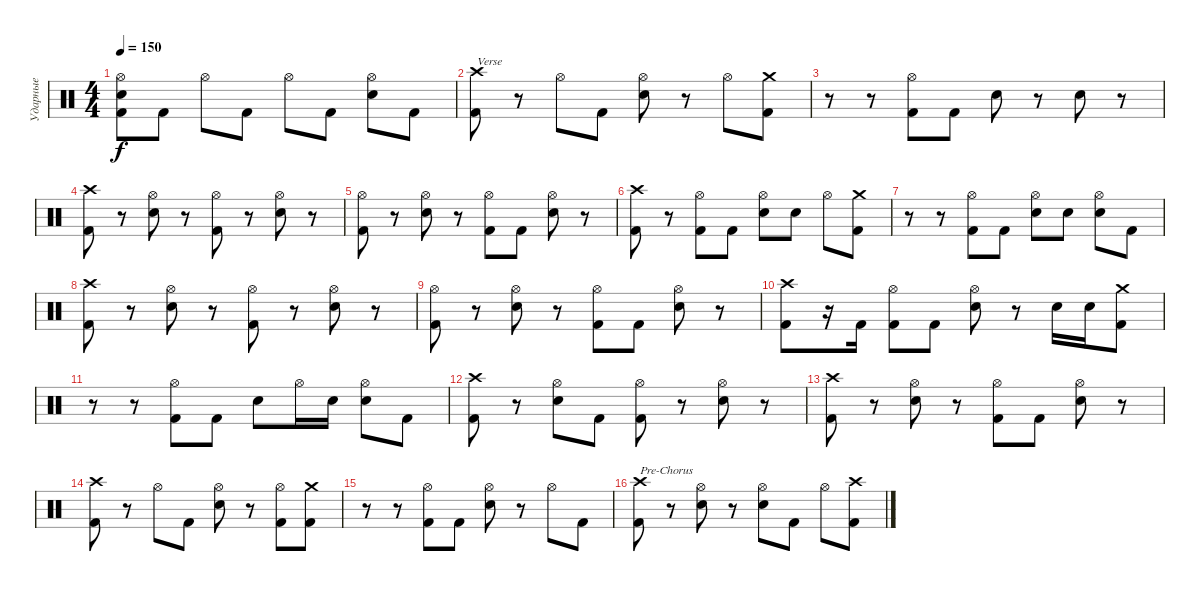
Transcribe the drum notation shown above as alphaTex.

\track ("Ударные" "Ударные") {instrument percussion}
\staff
\articulation defaults
\ts (4 4)
\tempo 150
\clef neutral
\ks c
("Kick (hit) 2" "Snare (hit) 2" "Hi-Hat (open)").8{dy f} "Kick (hit) 2".8 "Hi-Hat (open)".8 "Kick (hit) 2".8 "Hi-Hat (open)".8 "Kick (hit) 2".8 ("Snare (hit) 2" "Hi-Hat (open)").8 "Kick (hit) 2".8 |
("Kick (hit) 2" "Crash high (hit)").8{txt "Verse"} r.8 "Hi-Hat (open)".8 "Kick (hit) 2".8 ("Snare (hit) 2" "Hi-Hat (open)").8 r.8 "Hi-Hat (open)".8 ("Kick (hit) 2" "Crash medium (hit)").8 |
r.8 r.8 ("Kick (hit) 2" "Hi-Hat (open)").8 "Kick (hit) 2".8 "Snare (hit) 2".8 r.8 "Snare (hit) 2".8 r.8 |
("Kick (hit) 2" "Crash high (hit)").8 r.8 ("Snare (hit) 2" "Hi-Hat (open)").8 r.8 ("Kick (hit) 2" "Hi-Hat (open)").8 r.8 ("Snare (hit) 2" "Hi-Hat (open)").8 r.8 |
("Kick (hit) 2" "Hi-Hat (open)").8 r.8 ("Snare (hit) 2" "Hi-Hat (open)").8 r.8 ("Kick (hit) 2" "Hi-Hat (open)").8 "Kick (hit) 2".8 ("Snare (hit) 2" "Hi-Hat (open)").8 r.8 |
("Kick (hit) 2" "Crash high (hit)").8 r.8 ("Kick (hit) 2" "Hi-Hat (open)").8 "Kick (hit) 2".8 ("Snare (hit) 2" "Hi-Hat (open)").8 "Snare (hit) 2".8 "Hi-Hat (open)".8 ("Kick (hit) 2" "Crash medium (hit)").8 |
r.8 r.8 ("Kick (hit) 2" "Hi-Hat (open)").8 "Kick (hit) 2".8 ("Snare (hit) 2" "Hi-Hat (open)").8 "Snare (hit) 2".8 ("Snare (hit) 2" "Hi-Hat (open)").8 "Kick (hit) 2".8 |
("Kick (hit) 2" "Crash high (hit)").8 r.8 ("Snare (hit) 2" "Hi-Hat (open)").8 r.8 ("Kick (hit) 2" "Hi-Hat (open)").8 r.8 ("Snare (hit) 2" "Hi-Hat (open)").8 r.8 |
("Kick (hit) 2" "Hi-Hat (open)").8 r.8 ("Snare (hit) 2" "Hi-Hat (open)").8 r.8 ("Kick (hit) 2" "Hi-Hat (open)").8 "Kick (hit) 2".8 ("Snare (hit) 2" "Hi-Hat (open)").8 r.8 |
("Kick (hit) 2" "Crash high (hit)").8 r.16 "Kick (hit) 2".16 ("Kick (hit) 2" "Hi-Hat (open)").8 "Kick (hit) 2".8 ("Snare (hit) 2" "Hi-Hat (open)").8 r.8 "Snare (hit) 2".16 "Snare (hit) 2".16 ("Kick (hit) 2" "Crash medium (hit)").8 |
r.8 r.8 ("Kick (hit) 2" "Hi-Hat (open)").8 "Kick (hit) 2".8 "Snare (hit) 2".8 "Hi-Hat (open)".16 "Snare (hit) 2".16 ("Snare (hit) 2" "Hi-Hat (open)").8 "Kick (hit) 2".8 |
("Kick (hit) 2" "Crash high (hit)").8 r.8 ("Snare (hit) 2" "Hi-Hat (open)").8 "Kick (hit) 2".8 ("Kick (hit) 2" "Hi-Hat (open)").8 r.8 ("Snare (hit) 2" "Hi-Hat (open)").8 r.8 |
("Kick (hit) 2" "Crash high (hit)").8 r.8 ("Snare (hit) 2" "Hi-Hat (open)").8 r.8 ("Kick (hit) 2" "Hi-Hat (open)").8 "Kick (hit) 2".8 ("Snare (hit) 2" "Hi-Hat (open)").8 r.8 |
("Kick (hit) 2" "Crash high (hit)").8 r.8 "Hi-Hat (open)".8 "Kick (hit) 2".8 ("Snare (hit) 2" "Hi-Hat (open)").8 r.8 ("Kick (hit) 2" "Hi-Hat (open)").8 ("Kick (hit) 2" "Crash medium (hit)").8 |
r.8 r.8 ("Kick (hit) 2" "Hi-Hat (open)").8 "Kick (hit) 2".8 ("Snare (hit) 2" "Hi-Hat (open)").8 r.8 "Hi-Hat (open)".8 "Kick (hit) 2".8 |
("Kick (hit) 2" "Crash high (hit)").8{txt "Pre-Chorus"} r.8 ("Snare (hit) 2" "Hi-Hat (open)").8 r.8 ("Snare (hit) 2" "Hi-Hat (open)").8 "Kick (hit) 2".8 "Hi-Hat (open)".8 ("Kick (hit) 2" "Crash high (hit)").8
